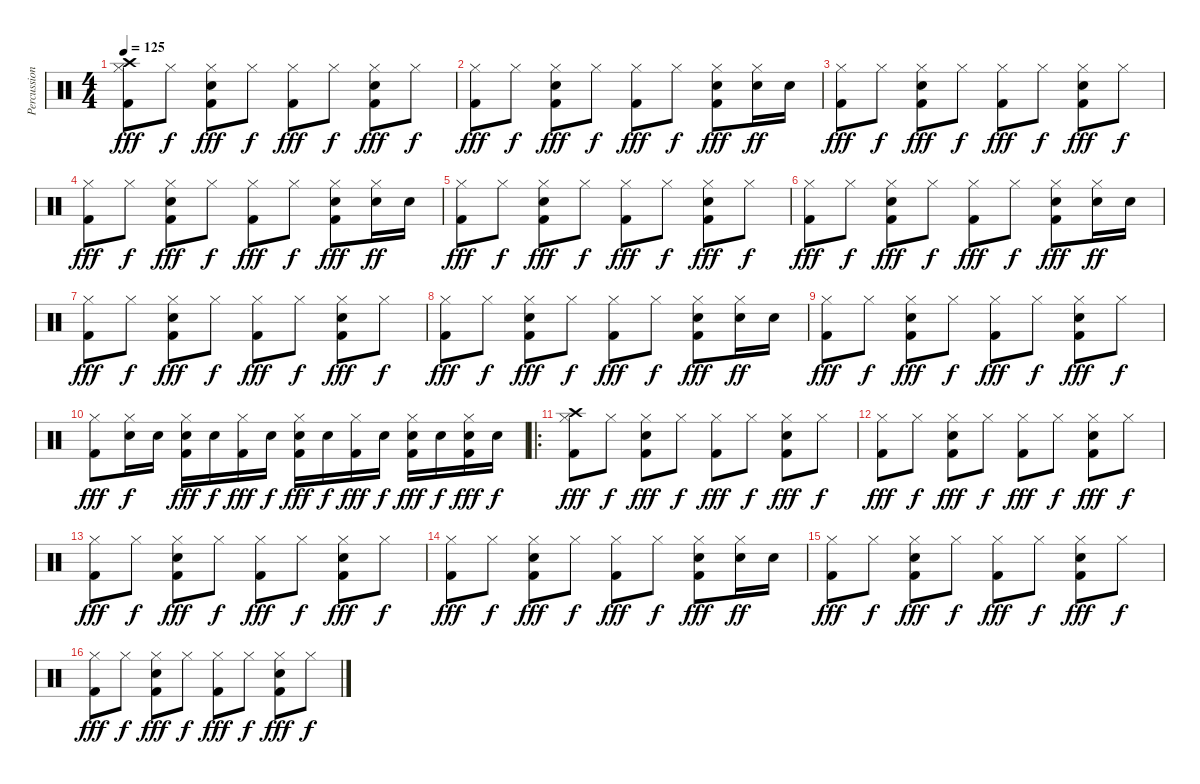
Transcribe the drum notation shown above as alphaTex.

\track ("Percussion" "Percussion") {instrument percussion}
\staff {score}
\articulation defaults
\ts (4 4)
\tempo 125
\clef neutral
\ks c
("Hi-Hat (closed)" "Kick (hit) 2" "Crash high (hit)").8{dy fff} "Hi-Hat (closed)".8{dy f} ("Hi-Hat (closed)" "Kick (hit) 2" "Snare (hit) 2").8{dy fff} "Hi-Hat (closed)".8{dy f} ("Hi-Hat (closed)" "Kick (hit) 2").8{dy fff} "Hi-Hat (closed)".8{dy f} ("Hi-Hat (closed)" "Kick (hit) 2" "Snare (hit) 2").8{dy fff} "Hi-Hat (closed)".8{dy f} |
("Hi-Hat (closed)" "Kick (hit) 2").8{dy fff} "Hi-Hat (closed)".8{dy f} ("Hi-Hat (closed)" "Kick (hit) 2" "Snare (hit) 2").8{dy fff} "Hi-Hat (closed)".8{dy f} ("Hi-Hat (closed)" "Kick (hit) 2").8{dy fff} "Hi-Hat (closed)".8{dy f} ("Hi-Hat (closed)" "Kick (hit) 2" "Snare (hit) 2").8{dy fff} ("Hi-Hat (closed)" "Snare (hit) 2").16{dy ff} "Snare (hit) 2".16 |
("Hi-Hat (closed)" "Kick (hit) 2").8{dy fff} "Hi-Hat (closed)".8{dy f} ("Hi-Hat (closed)" "Kick (hit) 2" "Snare (hit) 2").8{dy fff} "Hi-Hat (closed)".8{dy f} ("Hi-Hat (closed)" "Kick (hit) 2").8{dy fff} "Hi-Hat (closed)".8{dy f} ("Hi-Hat (closed)" "Kick (hit) 2" "Snare (hit) 2").8{dy fff} "Hi-Hat (closed)".8{dy f} |
("Hi-Hat (closed)" "Kick (hit) 2").8{dy fff} "Hi-Hat (closed)".8{dy f} ("Hi-Hat (closed)" "Kick (hit) 2" "Snare (hit) 2").8{dy fff} "Hi-Hat (closed)".8{dy f} ("Hi-Hat (closed)" "Kick (hit) 2").8{dy fff} "Hi-Hat (closed)".8{dy f} ("Hi-Hat (closed)" "Kick (hit) 2" "Snare (hit) 2").8{dy fff} ("Hi-Hat (closed)" "Snare (hit) 2").16{dy ff} "Snare (hit) 2".16 |
("Hi-Hat (closed)" "Kick (hit) 2").8{dy fff} "Hi-Hat (closed)".8{dy f} ("Hi-Hat (closed)" "Kick (hit) 2" "Snare (hit) 2").8{dy fff} "Hi-Hat (closed)".8{dy f} ("Hi-Hat (closed)" "Kick (hit) 2").8{dy fff} "Hi-Hat (closed)".8{dy f} ("Hi-Hat (closed)" "Kick (hit) 2" "Snare (hit) 2").8{dy fff} "Hi-Hat (closed)".8{dy f} |
("Hi-Hat (closed)" "Kick (hit) 2").8{dy fff} "Hi-Hat (closed)".8{dy f} ("Hi-Hat (closed)" "Kick (hit) 2" "Snare (hit) 2").8{dy fff} "Hi-Hat (closed)".8{dy f} ("Hi-Hat (closed)" "Kick (hit) 2").8{dy fff} "Hi-Hat (closed)".8{dy f} ("Hi-Hat (closed)" "Kick (hit) 2" "Snare (hit) 2").8{dy fff} ("Hi-Hat (closed)" "Snare (hit) 2").16{dy ff} "Snare (hit) 2".16 |
("Hi-Hat (closed)" "Kick (hit) 2").8{dy fff} "Hi-Hat (closed)".8{dy f} ("Hi-Hat (closed)" "Kick (hit) 2" "Snare (hit) 2").8{dy fff} "Hi-Hat (closed)".8{dy f} ("Hi-Hat (closed)" "Kick (hit) 2").8{dy fff} "Hi-Hat (closed)".8{dy f} ("Hi-Hat (closed)" "Kick (hit) 2" "Snare (hit) 2").8{dy fff} "Hi-Hat (closed)".8{dy f} |
("Hi-Hat (closed)" "Kick (hit) 2").8{dy fff} "Hi-Hat (closed)".8{dy f} ("Hi-Hat (closed)" "Kick (hit) 2" "Snare (hit) 2").8{dy fff} "Hi-Hat (closed)".8{dy f} ("Hi-Hat (closed)" "Kick (hit) 2").8{dy fff} "Hi-Hat (closed)".8{dy f} ("Hi-Hat (closed)" "Kick (hit) 2" "Snare (hit) 2").8{dy fff} ("Hi-Hat (closed)" "Snare (hit) 2").16{dy ff} "Snare (hit) 2".16 |
("Hi-Hat (closed)" "Kick (hit) 2").8{dy fff} "Hi-Hat (closed)".8{dy f} ("Hi-Hat (closed)" "Kick (hit) 2" "Snare (hit) 2").8{dy fff} "Hi-Hat (closed)".8{dy f} ("Hi-Hat (closed)" "Kick (hit) 2").8{dy fff} "Hi-Hat (closed)".8{dy f} ("Hi-Hat (closed)" "Kick (hit) 2" "Snare (hit) 2").8{dy fff} "Hi-Hat (closed)".8{dy f} |
("Hi-Hat (closed)" "Kick (hit) 2").8{dy fff} ("Hi-Hat (closed)" "Snare (hit) 2").16{dy f} "Snare (hit) 2".16 ("Hi-Hat (closed)" "Kick (hit) 2" "Snare (hit) 2").16{dy fff} "Snare (hit) 2".16{dy f} ("Hi-Hat (closed)" "Kick (hit) 2").16{dy fff} "Snare (hit) 2".16{dy f} ("Hi-Hat (closed)" "Kick (hit) 2" "Snare (hit) 2").16{dy fff} "Snare (hit) 2".16{dy f} ("Hi-Hat (closed)" "Kick (hit) 2").16{dy fff} "Snare (hit) 2".16{dy f} ("Hi-Hat (closed)" "Kick (hit) 2" "Snare (hit) 2").16{dy fff} "Snare (hit) 2".16{dy f} ("Hi-Hat (closed)" "Kick (hit) 2" "Snare (hit) 2").16{dy fff} "Snare (hit) 2".16{dy f} |
\ro
("Hi-Hat (closed)" "Kick (hit) 2" "Crash high (hit)").8{dy fff} "Hi-Hat (closed)".8{dy f} ("Hi-Hat (closed)" "Kick (hit) 2" "Snare (hit) 2").8{dy fff} "Hi-Hat (closed)".8{dy f} ("Hi-Hat (closed)" "Kick (hit) 2").8{dy fff} "Hi-Hat (closed)".8{dy f} ("Hi-Hat (closed)" "Kick (hit) 2" "Snare (hit) 2").8{dy fff} "Hi-Hat (closed)".8{dy f} |
("Hi-Hat (closed)" "Kick (hit) 2").8{dy fff} "Hi-Hat (closed)".8{dy f} ("Hi-Hat (closed)" "Kick (hit) 2" "Snare (hit) 2").8{dy fff} "Hi-Hat (closed)".8{dy f} ("Hi-Hat (closed)" "Kick (hit) 2").8{dy fff} "Hi-Hat (closed)".8{dy f} ("Hi-Hat (closed)" "Kick (hit) 2" "Snare (hit) 2").8{dy fff} "Hi-Hat (closed)".8{dy f} |
("Hi-Hat (closed)" "Kick (hit) 2").8{dy fff} "Hi-Hat (closed)".8{dy f} ("Hi-Hat (closed)" "Kick (hit) 2" "Snare (hit) 2").8{dy fff} "Hi-Hat (closed)".8{dy f} ("Hi-Hat (closed)" "Kick (hit) 2").8{dy fff} "Hi-Hat (closed)".8{dy f} ("Hi-Hat (closed)" "Kick (hit) 2" "Snare (hit) 2").8{dy fff} "Hi-Hat (closed)".8{dy f} |
("Hi-Hat (closed)" "Kick (hit) 2").8{dy fff} "Hi-Hat (closed)".8{dy f} ("Hi-Hat (closed)" "Kick (hit) 2" "Snare (hit) 2").8{dy fff} "Hi-Hat (closed)".8{dy f} ("Hi-Hat (closed)" "Kick (hit) 2").8{dy fff} "Hi-Hat (closed)".8{dy f} ("Hi-Hat (closed)" "Kick (hit) 2" "Snare (hit) 2").8{dy fff} ("Hi-Hat (closed)" "Snare (hit) 2").16{dy ff} "Snare (hit) 2".16 |
("Hi-Hat (closed)" "Kick (hit) 2").8{dy fff} "Hi-Hat (closed)".8{dy f} ("Hi-Hat (closed)" "Kick (hit) 2" "Snare (hit) 2").8{dy fff} "Hi-Hat (closed)".8{dy f} ("Hi-Hat (closed)" "Kick (hit) 2").8{dy fff} "Hi-Hat (closed)".8{dy f} ("Hi-Hat (closed)" "Kick (hit) 2" "Snare (hit) 2").8{dy fff} "Hi-Hat (closed)".8{dy f} |
("Hi-Hat (closed)" "Kick (hit) 2").8{dy fff} "Hi-Hat (closed)".8{dy f} ("Hi-Hat (closed)" "Kick (hit) 2" "Snare (hit) 2").8{dy fff} "Hi-Hat (closed)".8{dy f} ("Hi-Hat (closed)" "Kick (hit) 2").8{dy fff} "Hi-Hat (closed)".8{dy f} ("Hi-Hat (closed)" "Kick (hit) 2" "Snare (hit) 2").8{dy fff} "Hi-Hat (closed)".8{dy f}
